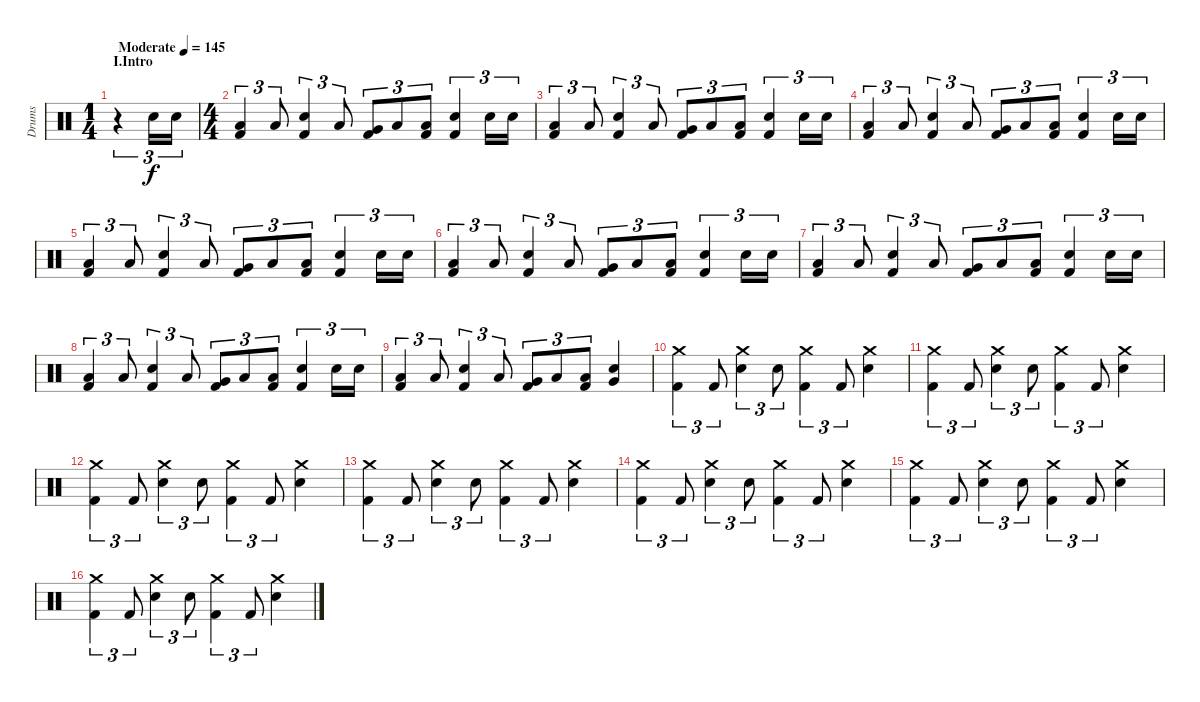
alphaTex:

\track ("Drums" "Drums") {instrument percussion}
\staff {score}
\articulation defaults
\ts (1 4)
\section ("" "I.Intro")
\tempo (145 "Moderate")
\clef neutral
\ks c
r.4{tu (3 2) dy f volume 8} "Electric Snare (hit)".16{tu (3 2)} "Electric Snare (hit)".16{tu (3 2)} |
\ts (4 4)
("Low Floor Tom (hit)" "Kick (hit) 2").4{tu (3 2)} "Low Floor Tom (hit)".8{tu (3 2)} ("Electric Snare (hit)" "Kick (hit) 2").4{tu (3 2)} "Low Tom (hit)".8{tu (3 2)} ("Very Low Tom (hit)" "Kick (hit) 2").8{tu (3 2)} "Low Floor Tom (hit)".8{tu (3 2)} ("Low Floor Tom (hit)" "Kick (hit) 2").8{tu (3 2)} ("Electric Snare (hit)" "Kick (hit) 2").4{tu (3 2)} "Electric Snare (hit)".16{tu (3 2)} "Electric Snare (hit)".16{tu (3 2)} |
("Low Floor Tom (hit)" "Kick (hit) 2").4{tu (3 2)} "Low Floor Tom (hit)".8{tu (3 2)} ("Electric Snare (hit)" "Kick (hit) 2").4{tu (3 2)} "Low Tom (hit)".8{tu (3 2)} ("Very Low Tom (hit)" "Kick (hit) 2").8{tu (3 2)} "Low Floor Tom (hit)".8{tu (3 2)} ("Low Floor Tom (hit)" "Kick (hit) 2").8{tu (3 2)} ("Electric Snare (hit)" "Kick (hit) 2").4{tu (3 2)} "Electric Snare (hit)".16{tu (3 2)} "Electric Snare (hit)".16{tu (3 2)} |
("Low Floor Tom (hit)" "Kick (hit) 2").4{tu (3 2)} "Low Floor Tom (hit)".8{tu (3 2)} ("Electric Snare (hit)" "Kick (hit) 2").4{tu (3 2)} "Low Tom (hit)".8{tu (3 2)} ("Very Low Tom (hit)" "Kick (hit) 2").8{tu (3 2)} "Low Floor Tom (hit)".8{tu (3 2)} ("Low Floor Tom (hit)" "Kick (hit) 2").8{tu (3 2)} ("Electric Snare (hit)" "Kick (hit) 2").4{tu (3 2)} "Electric Snare (hit)".16{tu (3 2)} "Electric Snare (hit)".16{tu (3 2)} |
("Low Floor Tom (hit)" "Kick (hit) 2").4{tu (3 2)} "Low Floor Tom (hit)".8{tu (3 2)} ("Electric Snare (hit)" "Kick (hit) 2").4{tu (3 2)} "Low Tom (hit)".8{tu (3 2)} ("Very Low Tom (hit)" "Kick (hit) 2").8{tu (3 2)} "Low Floor Tom (hit)".8{tu (3 2)} ("Low Floor Tom (hit)" "Kick (hit) 2").8{tu (3 2)} ("Electric Snare (hit)" "Kick (hit) 2").4{tu (3 2)} "Electric Snare (hit)".16{tu (3 2)} "Electric Snare (hit)".16{tu (3 2)} |
("Low Floor Tom (hit)" "Kick (hit) 2").4{tu (3 2)} "Low Floor Tom (hit)".8{tu (3 2)} ("Electric Snare (hit)" "Kick (hit) 2").4{tu (3 2)} "Low Tom (hit)".8{tu (3 2)} ("Very Low Tom (hit)" "Kick (hit) 2").8{tu (3 2)} "Low Floor Tom (hit)".8{tu (3 2)} ("Low Floor Tom (hit)" "Kick (hit) 2").8{tu (3 2)} ("Electric Snare (hit)" "Kick (hit) 2").4{tu (3 2)} "Electric Snare (hit)".16{tu (3 2)} "Electric Snare (hit)".16{tu (3 2)} |
("Low Floor Tom (hit)" "Kick (hit) 2").4{tu (3 2)} "Low Floor Tom (hit)".8{tu (3 2)} ("Electric Snare (hit)" "Kick (hit) 2").4{tu (3 2)} "Low Tom (hit)".8{tu (3 2)} ("Very Low Tom (hit)" "Kick (hit) 2").8{tu (3 2)} "Low Floor Tom (hit)".8{tu (3 2)} ("Low Floor Tom (hit)" "Kick (hit) 2").8{tu (3 2)} ("Electric Snare (hit)" "Kick (hit) 2").4{tu (3 2)} "Electric Snare (hit)".16{tu (3 2)} "Electric Snare (hit)".16{tu (3 2)} |
("Low Floor Tom (hit)" "Kick (hit) 2").4{tu (3 2)} "Low Floor Tom (hit)".8{tu (3 2)} ("Electric Snare (hit)" "Kick (hit) 2").4{tu (3 2)} "Low Tom (hit)".8{tu (3 2)} ("Very Low Tom (hit)" "Kick (hit) 2").8{tu (3 2)} "Low Floor Tom (hit)".8{tu (3 2)} ("Low Floor Tom (hit)" "Kick (hit) 2").8{tu (3 2)} ("Electric Snare (hit)" "Kick (hit) 2").4{tu (3 2)} "Electric Snare (hit)".16{tu (3 2)} "Electric Snare (hit)".16{tu (3 2)} |
("Low Floor Tom (hit)" "Kick (hit) 2").4{tu (3 2)} "Low Floor Tom (hit)".8{tu (3 2)} ("Electric Snare (hit)" "Kick (hit) 2").4{tu (3 2)} "Low Tom (hit)".8{tu (3 2)} ("Very Low Tom (hit)" "Kick (hit) 2").8{tu (3 2)} "Low Floor Tom (hit)".8{tu (3 2)} ("Low Floor Tom (hit)" "Kick (hit) 2").8{tu (3 2)} ("Very Low Tom (hit)" "Electric Snare (hit)").4{volume 12} |
("Crash medium (hit)" "Kick (hit) 2").4{tu (3 2)} "Kick (hit) 2".8{tu (3 2)} ("Crash medium (hit)" "Electric Snare (hit)").4{tu (3 2)} "Electric Snare (hit)".8{tu (3 2)} ("Crash medium (hit)" "Kick (hit) 2").4{tu (3 2)} "Kick (hit) 2".8{tu (3 2)} ("Crash medium (hit)" "Electric Snare (hit)").4 |
("Crash medium (hit)" "Kick (hit) 2").4{tu (3 2)} "Kick (hit) 2".8{tu (3 2)} ("Crash medium (hit)" "Electric Snare (hit)").4{tu (3 2)} "Electric Snare (hit)".8{tu (3 2)} ("Crash medium (hit)" "Kick (hit) 2").4{tu (3 2)} "Kick (hit) 2".8{tu (3 2)} ("Crash medium (hit)" "Electric Snare (hit)").4 |
("Crash medium (hit)" "Kick (hit) 2").4{tu (3 2)} "Kick (hit) 2".8{tu (3 2)} ("Crash medium (hit)" "Electric Snare (hit)").4{tu (3 2)} "Electric Snare (hit)".8{tu (3 2)} ("Crash medium (hit)" "Kick (hit) 2").4{tu (3 2)} "Kick (hit) 2".8{tu (3 2)} ("Crash medium (hit)" "Electric Snare (hit)").4 |
("Crash medium (hit)" "Kick (hit) 2").4{tu (3 2)} "Kick (hit) 2".8{tu (3 2)} ("Crash medium (hit)" "Electric Snare (hit)").4{tu (3 2)} "Electric Snare (hit)".8{tu (3 2)} ("Crash medium (hit)" "Kick (hit) 2").4{tu (3 2)} "Kick (hit) 2".8{tu (3 2)} ("Crash medium (hit)" "Electric Snare (hit)").4 |
("Crash medium (hit)" "Kick (hit) 2").4{tu (3 2)} "Kick (hit) 2".8{tu (3 2)} ("Crash medium (hit)" "Electric Snare (hit)").4{tu (3 2)} "Electric Snare (hit)".8{tu (3 2)} ("Crash medium (hit)" "Kick (hit) 2").4{tu (3 2)} "Kick (hit) 2".8{tu (3 2)} ("Crash medium (hit)" "Electric Snare (hit)").4 |
("Crash medium (hit)" "Kick (hit) 2").4{tu (3 2)} "Kick (hit) 2".8{tu (3 2)} ("Crash medium (hit)" "Electric Snare (hit)").4{tu (3 2)} "Electric Snare (hit)".8{tu (3 2)} ("Crash medium (hit)" "Kick (hit) 2").4{tu (3 2)} "Kick (hit) 2".8{tu (3 2)} ("Crash medium (hit)" "Electric Snare (hit)").4 |
("Crash medium (hit)" "Kick (hit) 2").4{tu (3 2)} "Kick (hit) 2".8{tu (3 2)} ("Crash medium (hit)" "Electric Snare (hit)").4{tu (3 2)} "Electric Snare (hit)".8{tu (3 2)} ("Crash medium (hit)" "Kick (hit) 2").4{tu (3 2)} "Kick (hit) 2".8{tu (3 2)} ("Crash medium (hit)" "Electric Snare (hit)").4
